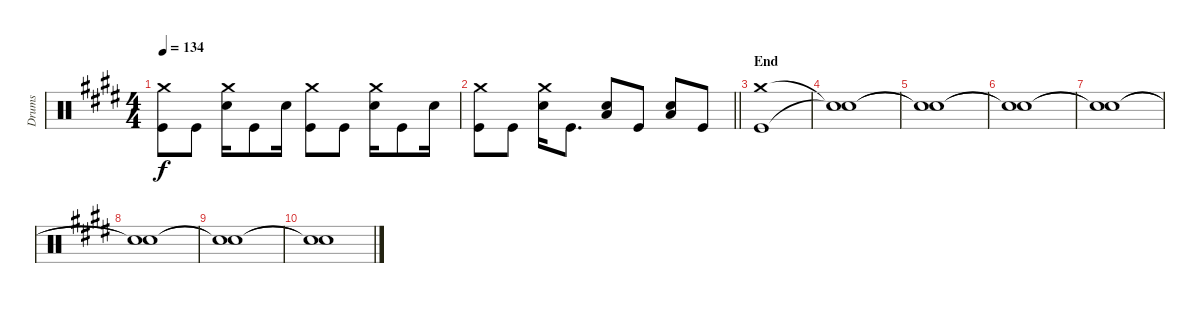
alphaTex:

\track ("Drums" "Drums") {instrument percussion}
\staff {score}
\articulation defaults
\ts (4 4)
\tempo 134
\clef neutral
\ks e
("Crash medium (hit)" "Kick (hit)").8{dy f} "Kick (hit)".8 ("Crash medium (hit)" "Snare (hit) 2").16 "Kick (hit)".8 "Snare (hit) 2".16 ("Crash medium (hit)" "Kick (hit)").8 "Kick (hit)".8 ("Crash medium (hit)" "Snare (hit) 2").16 "Kick (hit)".8 "Snare (hit) 2".16 |
\barLineRight lightlight
("Crash medium (hit)" "Kick (hit)").8 "Kick (hit)".8 ("Crash medium (hit)" "Snare (hit) 2").16 "Kick (hit)".8{d} ("Snare (hit) 2" "Low Floor Tom (hit)").8 "Kick (hit)".8 ("Snare (hit) 2" "Low Floor Tom (hit)").8 "Kick (hit)".8 |
\section ("" "End")
("Crash medium (hit)" "Kick (hit)").1 |
("Snare (hit)"{t} "Snare (hit)"{t}).1 |
("Snare (hit)"{t} "Snare (hit)"{t}).1 |
("Snare (hit)"{t} "Snare (hit)"{t}).1 |
("Snare (hit)"{t} "Snare (hit)"{t}).1 |
("Snare (hit)"{t} "Snare (hit)"{t}).1 |
("Snare (hit)"{t} "Snare (hit)"{t}).1 |
("Snare (hit)"{t} "Snare (hit)"{t}).1
